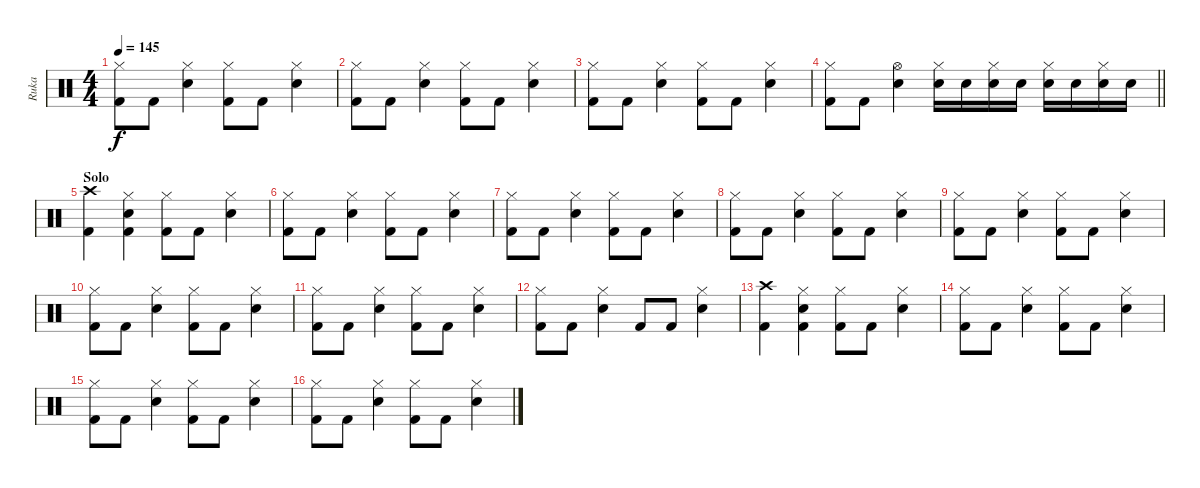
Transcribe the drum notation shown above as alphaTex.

\track ("Ruka" "Ruka") {instrument percussion}
\staff {score}
\articulation defaults
\ts (4 4)
\tempo 145
\clef neutral
\ks c
("Hi-Hat (closed)" "Kick (hit) 2").8{dy f} "Kick (hit) 2".8 ("Hi-Hat (closed)" "Electric Snare (hit)").4 ("Hi-Hat (closed)" "Kick (hit) 2").8 "Kick (hit) 2".8 ("Hi-Hat (closed)" "Electric Snare (hit)").4 |
("Hi-Hat (closed)" "Kick (hit) 2").8 "Kick (hit) 2".8 ("Hi-Hat (closed)" "Electric Snare (hit)").4 ("Hi-Hat (closed)" "Kick (hit) 2").8 "Kick (hit) 2".8 ("Hi-Hat (closed)" "Electric Snare (hit)").4 |
("Hi-Hat (closed)" "Kick (hit) 2").8 "Kick (hit) 2".8 ("Hi-Hat (closed)" "Electric Snare (hit)").4 ("Hi-Hat (closed)" "Kick (hit) 2").8 "Kick (hit) 2".8 ("Hi-Hat (closed)" "Electric Snare (hit)").4 |
\barLineRight lightlight
("Hi-Hat (closed)" "Kick (hit) 2").8 "Kick (hit) 2".8 ("Hi-Hat (open)" "Electric Snare (hit)").4 ("Hi-Hat (closed)" "Electric Snare (hit)").16 "Electric Snare (hit)".16 ("Hi-Hat (closed)" "Electric Snare (hit)").16 "Electric Snare (hit)".16 ("Hi-Hat (closed)" "Electric Snare (hit)").16 "Electric Snare (hit)".16 ("Hi-Hat (closed)" "Electric Snare (hit)").16 "Electric Snare (hit)".16 |
\section ("" "Solo")
("Crash high (hit)" "Kick (hit) 2").4 ("Hi-Hat (closed)" "Electric Snare (hit)" "Kick (hit) 2").4 ("Hi-Hat (closed)" "Kick (hit) 2").8 "Kick (hit) 2".8 ("Hi-Hat (closed)" "Electric Snare (hit)").4 |
("Hi-Hat (closed)" "Kick (hit) 2").8 "Kick (hit) 2".8 ("Hi-Hat (closed)" "Electric Snare (hit)").4 ("Hi-Hat (closed)" "Kick (hit) 2").8 "Kick (hit) 2".8 ("Hi-Hat (closed)" "Electric Snare (hit)").4 |
("Hi-Hat (closed)" "Kick (hit) 2").8 "Kick (hit) 2".8 ("Hi-Hat (closed)" "Electric Snare (hit)").4 ("Hi-Hat (closed)" "Kick (hit) 2").8 "Kick (hit) 2".8 ("Hi-Hat (closed)" "Electric Snare (hit)").4 |
("Hi-Hat (closed)" "Kick (hit) 2").8 "Kick (hit) 2".8 ("Hi-Hat (closed)" "Electric Snare (hit)").4 ("Hi-Hat (closed)" "Kick (hit) 2").8 "Kick (hit) 2".8 ("Hi-Hat (closed)" "Electric Snare (hit)").4 |
("Hi-Hat (closed)" "Kick (hit) 2").8 "Kick (hit) 2".8 ("Hi-Hat (closed)" "Electric Snare (hit)").4 ("Hi-Hat (closed)" "Kick (hit) 2").8 "Kick (hit) 2".8 ("Hi-Hat (closed)" "Electric Snare (hit)").4 |
("Hi-Hat (closed)" "Kick (hit) 2").8 "Kick (hit) 2".8 ("Hi-Hat (closed)" "Electric Snare (hit)").4 ("Hi-Hat (closed)" "Kick (hit) 2").8 "Kick (hit) 2".8 ("Hi-Hat (closed)" "Electric Snare (hit)").4 |
("Hi-Hat (closed)" "Kick (hit) 2").8 "Kick (hit) 2".8 ("Hi-Hat (closed)" "Electric Snare (hit)").4 ("Hi-Hat (closed)" "Kick (hit) 2").8 "Kick (hit) 2".8 ("Hi-Hat (closed)" "Electric Snare (hit)").4 |
("Hi-Hat (closed)" "Kick (hit) 2").8 "Kick (hit) 2".8 ("Hi-Hat (closed)" "Electric Snare (hit)").4 "Kick (hit) 2".8 "Kick (hit) 2".8 ("Hi-Hat (closed)" "Electric Snare (hit)").4 |
("Crash high (hit)" "Kick (hit) 2").4 ("Hi-Hat (closed)" "Electric Snare (hit)" "Kick (hit) 2").4 ("Hi-Hat (closed)" "Kick (hit) 2").8 "Kick (hit) 2".8 ("Hi-Hat (closed)" "Electric Snare (hit)").4 |
("Hi-Hat (closed)" "Kick (hit) 2").8 "Kick (hit) 2".8 ("Hi-Hat (closed)" "Electric Snare (hit)").4 ("Hi-Hat (closed)" "Kick (hit) 2").8 "Kick (hit) 2".8 ("Hi-Hat (closed)" "Electric Snare (hit)").4 |
("Hi-Hat (closed)" "Kick (hit) 2").8 "Kick (hit) 2".8 ("Hi-Hat (closed)" "Electric Snare (hit)").4 ("Hi-Hat (closed)" "Kick (hit) 2").8 "Kick (hit) 2".8 ("Hi-Hat (closed)" "Electric Snare (hit)").4 |
("Hi-Hat (closed)" "Kick (hit) 2").8 "Kick (hit) 2".8 ("Hi-Hat (closed)" "Electric Snare (hit)").4 ("Hi-Hat (closed)" "Kick (hit) 2").8 "Kick (hit) 2".8 ("Hi-Hat (closed)" "Electric Snare (hit)").4
